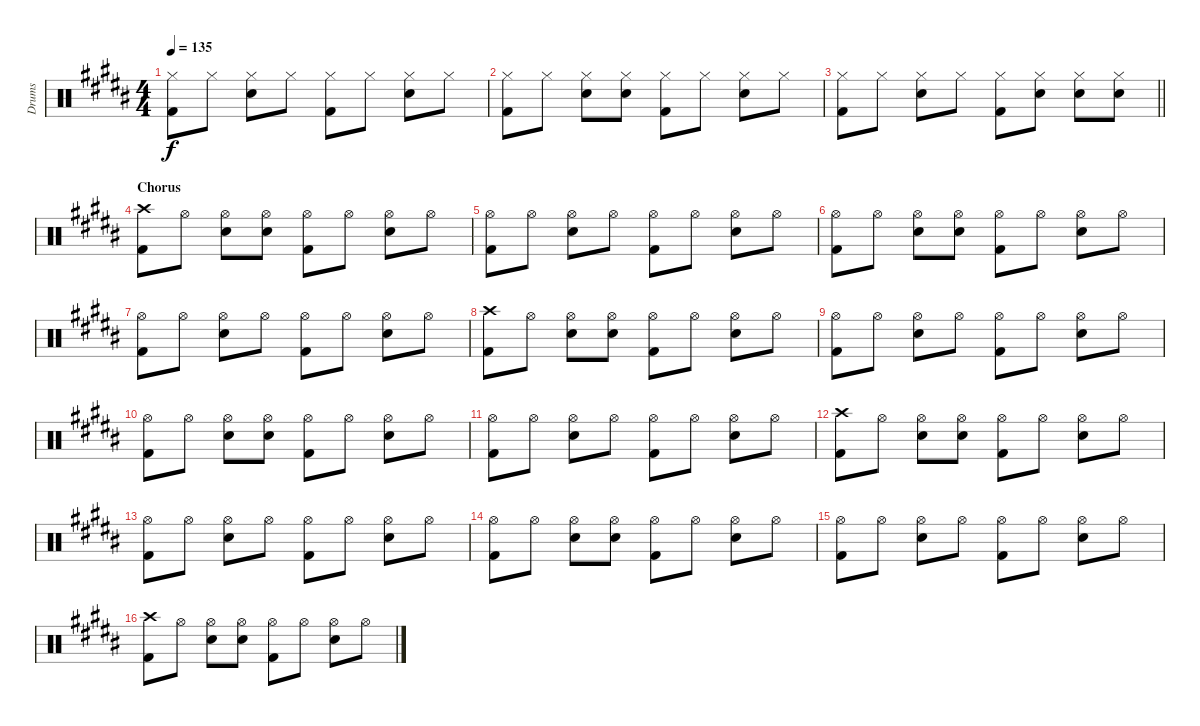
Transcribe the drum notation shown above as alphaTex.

\track ("Drums" "Drums") {instrument percussion}
\staff {score}
\articulation defaults
\ts (4 4)
\tempo 135
\clef neutral
\ks b
("Hi-Hat (closed)" "Kick (hit) 2").8{dy f} "Hi-Hat (closed)".8 ("Hi-Hat (closed)" "Snare (hit) 2").8 "Hi-Hat (closed)".8 ("Hi-Hat (closed)" "Kick (hit) 2").8 "Hi-Hat (closed)".8 ("Hi-Hat (closed)" "Snare (hit) 2").8 "Hi-Hat (closed)".8 |
("Hi-Hat (closed)" "Kick (hit) 2").8 "Hi-Hat (closed)".8 ("Hi-Hat (closed)" "Snare (hit) 2").8 ("Hi-Hat (closed)" "Snare (hit) 2").8 ("Hi-Hat (closed)" "Kick (hit) 2").8 "Hi-Hat (closed)".8 ("Hi-Hat (closed)" "Snare (hit) 2").8 "Hi-Hat (closed)".8 |
\barLineRight lightlight
("Hi-Hat (closed)" "Kick (hit) 2").8 "Hi-Hat (closed)".8 ("Hi-Hat (closed)" "Snare (hit) 2").8 "Hi-Hat (closed)".8 ("Hi-Hat (closed)" "Kick (hit) 2").8 ("Hi-Hat (closed)" "Snare (hit) 2").8 ("Hi-Hat (closed)" "Snare (hit) 2").8 ("Hi-Hat (closed)" "Snare (hit) 2").8 |
\section ("" "Chorus")
("Crash high (hit)" "Kick (hit) 2").8 "Hi-Hat (open)".8 ("Hi-Hat (open)" "Snare (hit) 2").8 ("Hi-Hat (open)" "Snare (hit) 2").8 ("Hi-Hat (open)" "Kick (hit) 2").8 "Hi-Hat (open)".8 ("Hi-Hat (open)" "Snare (hit) 2").8 "Hi-Hat (open)".8 |
("Hi-Hat (open)" "Kick (hit) 2").8 "Hi-Hat (open)".8 ("Hi-Hat (open)" "Snare (hit) 2").8 "Hi-Hat (open)".8 ("Hi-Hat (open)" "Kick (hit) 2").8 "Hi-Hat (open)".8 ("Hi-Hat (open)" "Snare (hit) 2").8 "Hi-Hat (open)".8 |
("Hi-Hat (open)" "Kick (hit) 2").8 "Hi-Hat (open)".8 ("Hi-Hat (open)" "Snare (hit) 2").8 ("Hi-Hat (open)" "Snare (hit) 2").8 ("Hi-Hat (open)" "Kick (hit) 2").8 "Hi-Hat (open)".8 ("Hi-Hat (open)" "Snare (hit) 2").8 "Hi-Hat (open)".8 |
("Hi-Hat (open)" "Kick (hit) 2").8 "Hi-Hat (open)".8 ("Hi-Hat (open)" "Snare (hit) 2").8 "Hi-Hat (open)".8 ("Hi-Hat (open)" "Kick (hit) 2").8 "Hi-Hat (open)".8 ("Hi-Hat (open)" "Snare (hit) 2").8 "Hi-Hat (open)".8 |
("Crash high (hit)" "Kick (hit) 2").8 "Hi-Hat (open)".8 ("Hi-Hat (open)" "Snare (hit) 2").8 ("Hi-Hat (open)" "Snare (hit) 2").8 ("Hi-Hat (open)" "Kick (hit) 2").8 "Hi-Hat (open)".8 ("Hi-Hat (open)" "Snare (hit) 2").8 "Hi-Hat (open)".8 |
("Hi-Hat (open)" "Kick (hit) 2").8 "Hi-Hat (open)".8 ("Hi-Hat (open)" "Snare (hit) 2").8 "Hi-Hat (open)".8 ("Hi-Hat (open)" "Kick (hit) 2").8 "Hi-Hat (open)".8 ("Hi-Hat (open)" "Snare (hit) 2").8 "Hi-Hat (open)".8 |
("Hi-Hat (open)" "Kick (hit) 2").8 "Hi-Hat (open)".8 ("Hi-Hat (open)" "Snare (hit) 2").8 ("Hi-Hat (open)" "Snare (hit) 2").8 ("Hi-Hat (open)" "Kick (hit) 2").8 "Hi-Hat (open)".8 ("Hi-Hat (open)" "Snare (hit) 2").8 "Hi-Hat (open)".8 |
("Hi-Hat (open)" "Kick (hit) 2").8 "Hi-Hat (open)".8 ("Hi-Hat (open)" "Snare (hit) 2").8 "Hi-Hat (open)".8 ("Hi-Hat (open)" "Kick (hit) 2").8 "Hi-Hat (open)".8 ("Hi-Hat (open)" "Snare (hit) 2").8 "Hi-Hat (open)".8 |
("Crash high (hit)" "Kick (hit) 2").8 "Hi-Hat (open)".8 ("Hi-Hat (open)" "Snare (hit) 2").8 ("Hi-Hat (open)" "Snare (hit) 2").8 ("Hi-Hat (open)" "Kick (hit) 2").8 "Hi-Hat (open)".8 ("Hi-Hat (open)" "Snare (hit) 2").8 "Hi-Hat (open)".8 |
("Hi-Hat (open)" "Kick (hit) 2").8 "Hi-Hat (open)".8 ("Hi-Hat (open)" "Snare (hit) 2").8 "Hi-Hat (open)".8 ("Hi-Hat (open)" "Kick (hit) 2").8 "Hi-Hat (open)".8 ("Hi-Hat (open)" "Snare (hit) 2").8 "Hi-Hat (open)".8 |
("Hi-Hat (open)" "Kick (hit) 2").8 "Hi-Hat (open)".8 ("Hi-Hat (open)" "Snare (hit) 2").8 ("Hi-Hat (open)" "Snare (hit) 2").8 ("Hi-Hat (open)" "Kick (hit) 2").8 "Hi-Hat (open)".8 ("Hi-Hat (open)" "Snare (hit) 2").8 "Hi-Hat (open)".8 |
("Hi-Hat (open)" "Kick (hit) 2").8 "Hi-Hat (open)".8 ("Hi-Hat (open)" "Snare (hit) 2").8 "Hi-Hat (open)".8 ("Hi-Hat (open)" "Kick (hit) 2").8 "Hi-Hat (open)".8 ("Hi-Hat (open)" "Snare (hit) 2").8 "Hi-Hat (open)".8 |
("Crash high (hit)" "Kick (hit) 2").8 "Hi-Hat (open)".8 ("Hi-Hat (open)" "Snare (hit) 2").8 ("Hi-Hat (open)" "Snare (hit) 2").8 ("Hi-Hat (open)" "Kick (hit) 2").8 "Hi-Hat (open)".8 ("Hi-Hat (open)" "Snare (hit) 2").8 "Hi-Hat (open)".8
